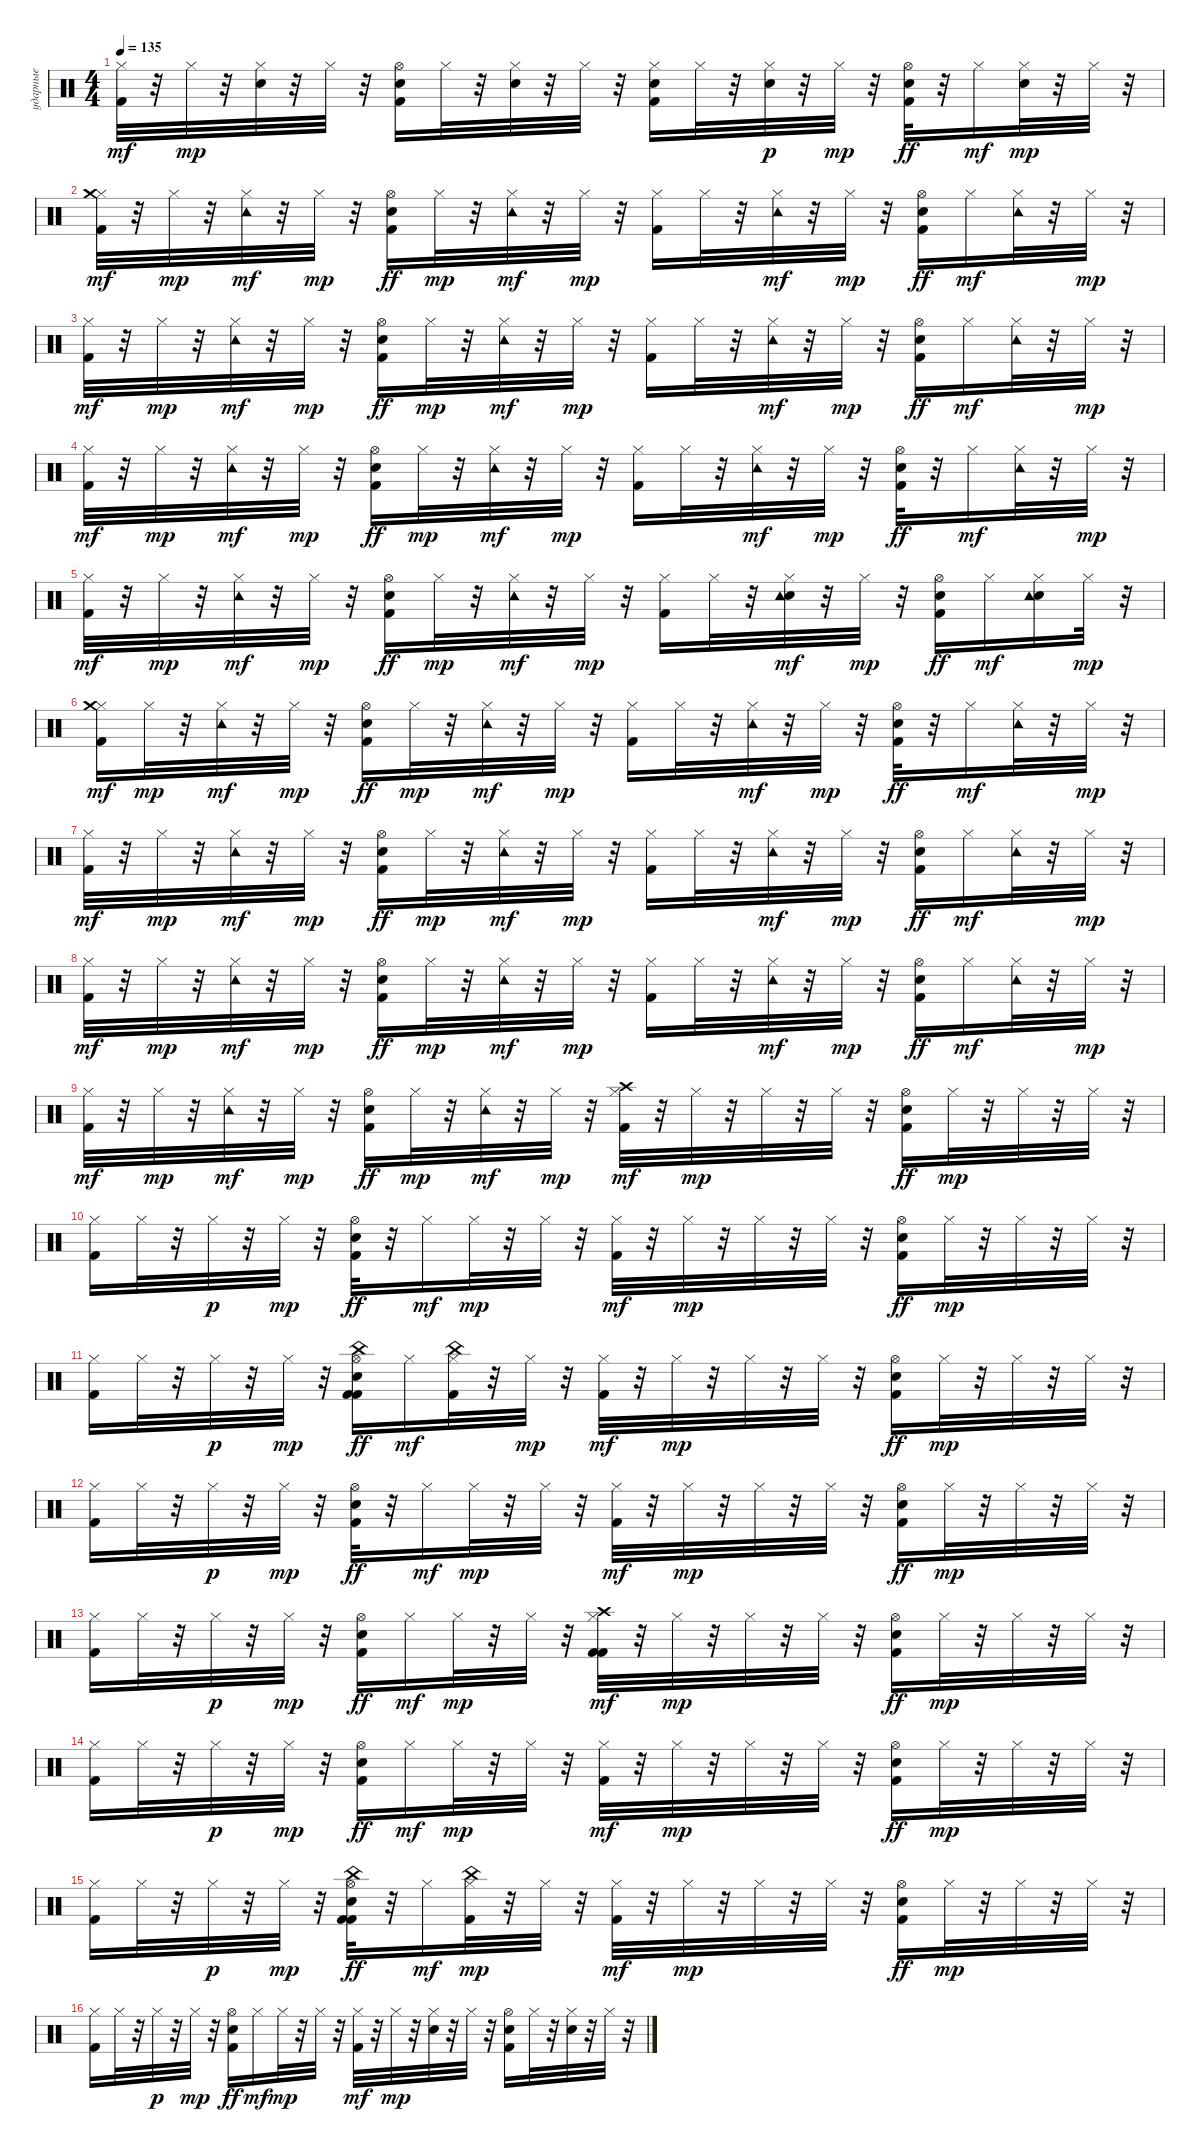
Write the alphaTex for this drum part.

\track ("ударные" "ударные") {instrument percussion}
\staff {score}
\articulation defaults
\ts (4 4)
\tempo 135
\clef neutral
\ks c
("Kick (hit) 2" "Hi-Hat (closed)").32{dy mf} r.32 "Hi-Hat (closed)".32{dy mp} r.32 ("Snare (hit) 2" "Hi-Hat (closed)").32 r.32 "Hi-Hat (closed)".32 r.32 ("Kick (hit) 2" "Snare (hit) 2" "Hi-Hat (open)").16 "Hi-Hat (closed)".32 r.32 ("Snare (hit) 2" "Hi-Hat (closed)").32 r.32 "Hi-Hat (closed)".32 r.32 ("Kick (hit) 2" "Snare (hit) 2" "Hi-Hat (closed)").16 "Hi-Hat (closed)".32 r.32 ("Snare (hit) 2" "Hi-Hat (closed)").32{dy p} r.32 "Hi-Hat (closed)".32{dy mp} r.32 ("Kick (hit) 2" "Snare (hit) 2" "Hi-Hat (open)").32{dy ff} r.32 "Hi-Hat (closed)".16{dy mf} ("Snare (hit) 2" "Hi-Hat (closed)").32{dy mp} r.32 "Hi-Hat (closed)".32 r.32 |
("Kick (hit) 2" "Hi-Hat (closed)" "Crash medium (hit)").32{dy mf} r.32 "Hi-Hat (closed)".32{dy mp} r.32 ("Hi-Hat (closed)" "Tambourine (hit)").32{dy mf} r.32 "Hi-Hat (closed)".32{dy mp} r.32 ("Kick (hit) 2" "Snare (hit) 2" "Hi-Hat (open)").16{dy ff} "Hi-Hat (closed)".32{dy mp} r.32 ("Hi-Hat (closed)" "Tambourine (hit)").32{dy mf} r.32 "Hi-Hat (closed)".32{dy mp} r.32 ("Kick (hit) 2" "Hi-Hat (closed)").16 "Hi-Hat (closed)".32 r.32 ("Hi-Hat (closed)" "Tambourine (hit)").32{dy mf} r.32 "Hi-Hat (closed)".32{dy mp} r.32 ("Kick (hit) 2" "Snare (hit) 2" "Hi-Hat (open)").16{dy ff} "Hi-Hat (closed)".16{dy mf} ("Hi-Hat (closed)" "Tambourine (hit)").32 r.32 "Hi-Hat (closed)".32{dy mp} r.32 |
("Kick (hit) 2" "Hi-Hat (closed)").32{dy mf} r.32 "Hi-Hat (closed)".32{dy mp} r.32 ("Hi-Hat (closed)" "Tambourine (hit)").32{dy mf} r.32 "Hi-Hat (closed)".32{dy mp} r.32 ("Kick (hit) 2" "Snare (hit) 2" "Hi-Hat (open)").16{dy ff} "Hi-Hat (closed)".32{dy mp} r.32 ("Hi-Hat (closed)" "Tambourine (hit)").32{dy mf} r.32 "Hi-Hat (closed)".32{dy mp} r.32 ("Kick (hit) 2" "Hi-Hat (closed)").16 "Hi-Hat (closed)".32 r.32 ("Hi-Hat (closed)" "Tambourine (hit)").32{dy mf} r.32 "Hi-Hat (closed)".32{dy mp} r.32 ("Kick (hit) 2" "Snare (hit) 2" "Hi-Hat (open)").16{dy ff} "Hi-Hat (closed)".16{dy mf} ("Hi-Hat (closed)" "Tambourine (hit)").32 r.32 "Hi-Hat (closed)".32{dy mp} r.32 |
("Kick (hit) 2" "Hi-Hat (closed)").32{dy mf} r.32 "Hi-Hat (closed)".32{dy mp} r.32 ("Hi-Hat (closed)" "Tambourine (hit)").32{dy mf} r.32 "Hi-Hat (closed)".32{dy mp} r.32 ("Kick (hit) 2" "Snare (hit) 2" "Hi-Hat (open)").16{dy ff} "Hi-Hat (closed)".32{dy mp} r.32 ("Hi-Hat (closed)" "Tambourine (hit)").32{dy mf} r.32 "Hi-Hat (closed)".32{dy mp} r.32 ("Kick (hit) 2" "Hi-Hat (closed)").16 "Hi-Hat (closed)".32 r.32 ("Hi-Hat (closed)" "Tambourine (hit)").32{dy mf} r.32 "Hi-Hat (closed)".32{dy mp} r.32 ("Kick (hit) 2" "Snare (hit) 2" "Hi-Hat (open)").32{dy ff} r.32 "Hi-Hat (closed)".16{dy mf} ("Hi-Hat (closed)" "Tambourine (hit)").32 r.32 "Hi-Hat (closed)".32{dy mp} r.32 |
("Kick (hit) 2" "Hi-Hat (closed)").32{dy mf} r.32 "Hi-Hat (closed)".32{dy mp} r.32 ("Hi-Hat (closed)" "Tambourine (hit)").32{dy mf} r.32 "Hi-Hat (closed)".32{dy mp} r.32 ("Kick (hit) 2" "Snare (hit) 2" "Hi-Hat (open)").16{dy ff} "Hi-Hat (closed)".32{dy mp} r.32 ("Hi-Hat (closed)" "Tambourine (hit)").32{dy mf} r.32 "Hi-Hat (closed)".32{dy mp} r.32 ("Kick (hit) 2" "Hi-Hat (closed)").16 "Hi-Hat (closed)".32 r.32 ("Snare (hit) 2" "Hi-Hat (closed)" "Tambourine (hit)").32{dy mf} r.32 "Hi-Hat (closed)".32{dy mp} r.32 ("Kick (hit) 2" "Snare (hit) 2" "Hi-Hat (open)").16{dy ff} "Hi-Hat (closed)".16{dy mf} ("Snare (hit) 2" "Hi-Hat (closed)" "Tambourine (hit)").16 "Hi-Hat (closed)".32{dy mp} r.32 |
("Kick (hit) 2" "Hi-Hat (closed)" "Crash medium (hit)").16{dy mf} "Hi-Hat (closed)".32{dy mp} r.32 ("Hi-Hat (closed)" "Tambourine (hit)").32{dy mf} r.32 "Hi-Hat (closed)".32{dy mp} r.32 ("Kick (hit) 2" "Snare (hit) 2" "Hi-Hat (open)").16{dy ff} "Hi-Hat (closed)".32{dy mp} r.32 ("Hi-Hat (closed)" "Tambourine (hit)").32{dy mf} r.32 "Hi-Hat (closed)".32{dy mp} r.32 ("Kick (hit) 2" "Hi-Hat (closed)").16 "Hi-Hat (closed)".32 r.32 ("Hi-Hat (closed)" "Tambourine (hit)").32{dy mf} r.32 "Hi-Hat (closed)".32{dy mp} r.32 ("Kick (hit) 2" "Snare (hit) 2" "Hi-Hat (open)").32{dy ff} r.32 "Hi-Hat (closed)".16{dy mf} ("Hi-Hat (closed)" "Tambourine (hit)").32 r.32 "Hi-Hat (closed)".32{dy mp} r.32 |
("Kick (hit) 2" "Hi-Hat (closed)").32{dy mf} r.32 "Hi-Hat (closed)".32{dy mp} r.32 ("Hi-Hat (closed)" "Tambourine (hit)").32{dy mf} r.32 "Hi-Hat (closed)".32{dy mp} r.32 ("Kick (hit) 2" "Snare (hit) 2" "Hi-Hat (open)").16{dy ff} "Hi-Hat (closed)".32{dy mp} r.32 ("Hi-Hat (closed)" "Tambourine (hit)").32{dy mf} r.32 "Hi-Hat (closed)".32{dy mp} r.32 ("Kick (hit) 2" "Hi-Hat (closed)").16 "Hi-Hat (closed)".32 r.32 ("Hi-Hat (closed)" "Tambourine (hit)").32{dy mf} r.32 "Hi-Hat (closed)".32{dy mp} r.32 ("Kick (hit) 2" "Snare (hit) 2" "Hi-Hat (open)").16{dy ff} "Hi-Hat (closed)".16{dy mf} ("Hi-Hat (closed)" "Tambourine (hit)").32 r.32 "Hi-Hat (closed)".32{dy mp} r.32 |
("Kick (hit) 2" "Hi-Hat (closed)").32{dy mf} r.32 "Hi-Hat (closed)".32{dy mp} r.32 ("Hi-Hat (closed)" "Tambourine (hit)").32{dy mf} r.32 "Hi-Hat (closed)".32{dy mp} r.32 ("Kick (hit) 2" "Snare (hit) 2" "Hi-Hat (open)").16{dy ff} "Hi-Hat (closed)".32{dy mp} r.32 ("Hi-Hat (closed)" "Tambourine (hit)").32{dy mf} r.32 "Hi-Hat (closed)".32{dy mp} r.32 ("Kick (hit) 2" "Hi-Hat (closed)").16 "Hi-Hat (closed)".32 r.32 ("Hi-Hat (closed)" "Tambourine (hit)").32{dy mf} r.32 "Hi-Hat (closed)".32{dy mp} r.32 ("Kick (hit) 2" "Snare (hit) 2" "Hi-Hat (open)").16{dy ff} "Hi-Hat (closed)".16{dy mf} ("Hi-Hat (closed)" "Tambourine (hit)").32 r.32 "Hi-Hat (closed)".32{dy mp} r.32 |
("Kick (hit) 2" "Hi-Hat (closed)").32{dy mf} r.32 "Hi-Hat (closed)".32{dy mp} r.32 ("Hi-Hat (closed)" "Tambourine (hit)").32{dy mf} r.32 "Hi-Hat (closed)".32{dy mp} r.32 ("Kick (hit) 2" "Snare (hit) 2" "Hi-Hat (open)").16{dy ff} "Hi-Hat (closed)".32{dy mp} r.32 ("Hi-Hat (closed)" "Tambourine (hit)").32{dy mf} r.32 "Hi-Hat (closed)".32{dy mp} r.32 ("Kick (hit) 2" "Hi-Hat (closed)" "Crash high (hit)").32{dy mf} r.32 "Hi-Hat (closed)".32{dy mp} r.32 "Hi-Hat (closed)".32 r.32 "Hi-Hat (closed)".32 r.32 ("Kick (hit) 2" "Snare (hit) 2" "Hi-Hat (open)").16{dy ff} "Hi-Hat (closed)".32{dy mp} r.32 "Hi-Hat (closed)".32 r.32 "Hi-Hat (closed)".32 r.32 |
("Kick (hit) 2" "Hi-Hat (closed)").16 "Hi-Hat (closed)".32 r.32 "Hi-Hat (closed)".32{dy p} r.32 "Hi-Hat (closed)".32{dy mp} r.32 ("Kick (hit) 2" "Snare (hit) 2" "Hi-Hat (open)").32{dy ff} r.32 "Hi-Hat (closed)".16{dy mf} "Hi-Hat (closed)".32{dy mp} r.32 "Hi-Hat (closed)".32 r.32 ("Kick (hit) 2" "Hi-Hat (closed)").32{dy mf} r.32 "Hi-Hat (closed)".32{dy mp} r.32 "Hi-Hat (closed)".32 r.32 "Hi-Hat (closed)".32 r.32 ("Kick (hit) 2" "Snare (hit) 2" "Hi-Hat (open)").16{dy ff} "Hi-Hat (closed)".32{dy mp} r.32 "Hi-Hat (closed)".32 r.32 "Hi-Hat (closed)".32 r.32 |
("Kick (hit) 2" "Hi-Hat (closed)").16 "Hi-Hat (closed)".32 r.32 "Hi-Hat (closed)".32{dy p} r.32 "Hi-Hat (closed)".32{dy mp} r.32 ("Kick (hit) 2" "Kick (hit) 2" "Hi-Hat (open)" "Snare (hit) 2" "China (hit)").16{dy ff} "Hi-Hat (closed)".16{dy mf} ("Kick (hit) 2" "Hi-Hat (closed)" "China (hit)").32 r.32 "Hi-Hat (closed)".32{dy mp} r.32 ("Kick (hit) 2" "Hi-Hat (closed)").32{dy mf} r.32 "Hi-Hat (closed)".32{dy mp} r.32 "Hi-Hat (closed)".32 r.32 "Hi-Hat (closed)".32 r.32 ("Kick (hit) 2" "Snare (hit) 2" "Hi-Hat (open)").16{dy ff} "Hi-Hat (closed)".32{dy mp} r.32 "Hi-Hat (closed)".32 r.32 "Hi-Hat (closed)".32 r.32 |
("Kick (hit) 2" "Hi-Hat (closed)").16 "Hi-Hat (closed)".32 r.32 "Hi-Hat (closed)".32{dy p} r.32 "Hi-Hat (closed)".32{dy mp} r.32 ("Kick (hit) 2" "Snare (hit) 2" "Hi-Hat (open)").32{dy ff} r.32 "Hi-Hat (closed)".16{dy mf} "Hi-Hat (closed)".32{dy mp} r.32 "Hi-Hat (closed)".32 r.32 ("Kick (hit) 2" "Hi-Hat (closed)").32{dy mf} r.32 "Hi-Hat (closed)".32{dy mp} r.32 "Hi-Hat (closed)".32 r.32 "Hi-Hat (closed)".32 r.32 ("Kick (hit) 2" "Snare (hit) 2" "Hi-Hat (open)").16{dy ff} "Hi-Hat (closed)".32{dy mp} r.32 "Hi-Hat (closed)".32 r.32 "Hi-Hat (closed)".32 r.32 |
("Kick (hit) 2" "Hi-Hat (closed)").16 "Hi-Hat (closed)".32 r.32 "Hi-Hat (closed)".32{dy p} r.32 "Hi-Hat (closed)".32{dy mp} r.32 ("Kick (hit) 2" "Snare (hit) 2" "Hi-Hat (open)").16{dy ff} "Hi-Hat (closed)".16{dy mf} "Hi-Hat (closed)".32{dy mp} r.32 "Hi-Hat (closed)".32 r.32 ("Kick (hit) 2" "Kick (hit) 2" "Hi-Hat (closed)" "Crash high (hit)").32{dy mf} r.32 "Hi-Hat (closed)".32{dy mp} r.32 "Hi-Hat (closed)".32 r.32 "Hi-Hat (closed)".32 r.32 ("Kick (hit) 2" "Snare (hit) 2" "Hi-Hat (open)").16{dy ff} "Hi-Hat (closed)".32{dy mp} r.32 "Hi-Hat (closed)".32 r.32 "Hi-Hat (closed)".32 r.32 |
("Kick (hit) 2" "Hi-Hat (closed)").16 "Hi-Hat (closed)".32 r.32 "Hi-Hat (closed)".32{dy p} r.32 "Hi-Hat (closed)".32{dy mp} r.32 ("Kick (hit) 2" "Snare (hit) 2" "Hi-Hat (open)").16{dy ff} "Hi-Hat (closed)".16{dy mf} "Hi-Hat (closed)".32{dy mp} r.32 "Hi-Hat (closed)".32 r.32 ("Kick (hit) 2" "Hi-Hat (closed)").32{dy mf} r.32 "Hi-Hat (closed)".32{dy mp} r.32 "Hi-Hat (closed)".32 r.32 "Hi-Hat (closed)".32 r.32 ("Kick (hit) 2" "Snare (hit) 2" "Hi-Hat (open)").16{dy ff} "Hi-Hat (closed)".32{dy mp} r.32 "Hi-Hat (closed)".32 r.32 "Hi-Hat (closed)".32 r.32 |
("Kick (hit) 2" "Hi-Hat (closed)").16 "Hi-Hat (closed)".32 r.32 "Hi-Hat (closed)".32{dy p} r.32 "Hi-Hat (closed)".32{dy mp} r.32 ("Kick (hit) 2" "Kick (hit) 2" "Hi-Hat (open)" "Snare (hit) 2" "China (hit)").32{dy ff} r.32 "Hi-Hat (closed)".16{dy mf} ("Kick (hit) 2" "Hi-Hat (closed)" "China (hit)").32{dy mp} r.32 "Hi-Hat (closed)".32 r.32 ("Kick (hit) 2" "Hi-Hat (closed)").32{dy mf} r.32 "Hi-Hat (closed)".32{dy mp} r.32 "Hi-Hat (closed)".32 r.32 "Hi-Hat (closed)".32 r.32 ("Kick (hit) 2" "Snare (hit) 2" "Hi-Hat (open)").16{dy ff} "Hi-Hat (closed)".32{dy mp} r.32 "Hi-Hat (closed)".32 r.32 "Hi-Hat (closed)".32 r.32 |
("Kick (hit) 2" "Hi-Hat (closed)").16 "Hi-Hat (closed)".32 r.32 "Hi-Hat (closed)".32{dy p} r.32 "Hi-Hat (closed)".32{dy mp} r.32 ("Kick (hit) 2" "Snare (hit) 2" "Hi-Hat (open)").16{dy ff} "Hi-Hat (closed)".16{dy mf} "Hi-Hat (closed)".32{dy mp} r.32 "Hi-Hat (closed)".32 r.32 ("Kick (hit) 2" "Hi-Hat (closed)").32{dy mf} r.32 "Hi-Hat (closed)".32{dy mp} r.32 ("Snare (hit) 2" "Hi-Hat (closed)").32 r.32 "Hi-Hat (closed)".32 r.32 ("Kick (hit) 2" "Snare (hit) 2" "Hi-Hat (open)").16 "Hi-Hat (closed)".32 r.32 ("Snare (hit) 2" "Hi-Hat (closed)").32 r.32 "Hi-Hat (closed)".32 r.32
